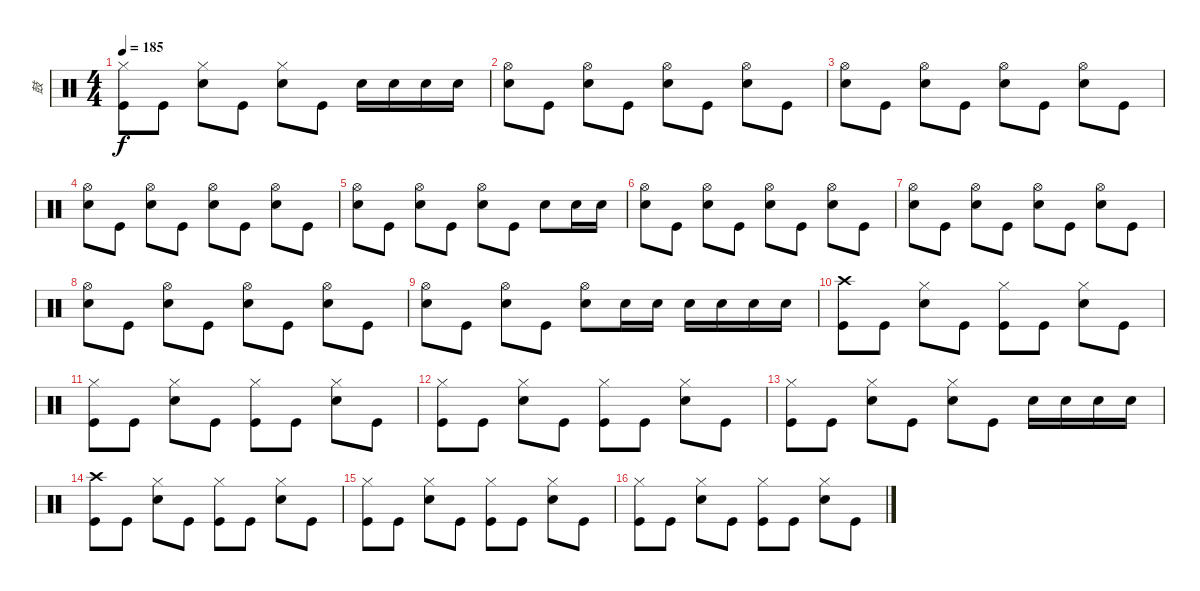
\track ("鼓" "鼓") {instrument percussion}
\staff {score}
\articulation defaults
\ts (4 4)
\tempo 185
\clef neutral
\ks c
("Hi-Hat (closed)" "Kick (hit)").8{dy f} "Kick (hit)".8 ("Hi-Hat (closed)" "Snare (hit) 2").8 "Kick (hit)".8 ("Hi-Hat (closed)" "Snare (hit) 2").8 "Kick (hit)".8 "Snare (hit) 2".16 "Snare (hit) 2".16 "Snare (hit) 2".16 "Snare (hit) 2".16 |
("Hi-Hat (open)" "Snare (hit) 2").8 "Kick (hit)".8 ("Hi-Hat (open)" "Snare (hit) 2").8 "Kick (hit)".8 ("Hi-Hat (open)" "Snare (hit) 2").8 "Kick (hit)".8 ("Hi-Hat (open)" "Snare (hit) 2").8 "Kick (hit)".8 |
("Hi-Hat (open)" "Snare (hit) 2").8 "Kick (hit)".8 ("Hi-Hat (open)" "Snare (hit) 2").8 "Kick (hit)".8 ("Hi-Hat (open)" "Snare (hit) 2").8 "Kick (hit)".8 ("Hi-Hat (open)" "Snare (hit) 2").8 "Kick (hit)".8 |
("Hi-Hat (open)" "Snare (hit) 2").8 "Kick (hit)".8 ("Hi-Hat (open)" "Snare (hit) 2").8 "Kick (hit)".8 ("Hi-Hat (open)" "Snare (hit) 2").8 "Kick (hit)".8 ("Hi-Hat (open)" "Snare (hit) 2").8 "Kick (hit)".8 |
("Hi-Hat (open)" "Snare (hit) 2").8 "Kick (hit)".8 ("Hi-Hat (open)" "Snare (hit) 2").8 "Kick (hit)".8 ("Hi-Hat (open)" "Snare (hit) 2").8 "Kick (hit)".8 "Snare (hit) 2".8 "Snare (hit) 2".16 "Snare (hit) 2".16 |
("Hi-Hat (open)" "Snare (hit) 2").8 "Kick (hit)".8 ("Hi-Hat (open)" "Snare (hit) 2").8 "Kick (hit)".8 ("Hi-Hat (open)" "Snare (hit) 2").8 "Kick (hit)".8 ("Hi-Hat (open)" "Snare (hit) 2").8 "Kick (hit)".8 |
("Hi-Hat (open)" "Snare (hit) 2").8 "Kick (hit)".8 ("Hi-Hat (open)" "Snare (hit) 2").8 "Kick (hit)".8 ("Hi-Hat (open)" "Snare (hit) 2").8 "Kick (hit)".8 ("Hi-Hat (open)" "Snare (hit) 2").8 "Kick (hit)".8 |
("Hi-Hat (open)" "Snare (hit) 2").8 "Kick (hit)".8 ("Hi-Hat (open)" "Snare (hit) 2").8 "Kick (hit)".8 ("Hi-Hat (open)" "Snare (hit) 2").8 "Kick (hit)".8 ("Hi-Hat (open)" "Snare (hit) 2").8 "Kick (hit)".8 |
("Hi-Hat (open)" "Snare (hit) 2").8 "Kick (hit)".8 ("Hi-Hat (open)" "Snare (hit) 2").8 "Kick (hit)".8 ("Hi-Hat (open)" "Snare (hit) 2").8 "Snare (hit) 2".16 "Snare (hit) 2".16 "Snare (hit) 2".16 "Snare (hit) 2".16 "Snare (hit) 2".16 "Snare (hit) 2".16 |
("Crash high (hit)" "Kick (hit)").8 "Kick (hit)".8 ("Hi-Hat (closed)" "Snare (hit) 2").8 "Kick (hit)".8 ("Hi-Hat (closed)" "Kick (hit)").8 "Kick (hit)".8 ("Hi-Hat (closed)" "Snare (hit) 2").8 "Kick (hit)".8 |
("Hi-Hat (closed)" "Kick (hit)").8 "Kick (hit)".8 ("Hi-Hat (closed)" "Snare (hit) 2").8 "Kick (hit)".8 ("Hi-Hat (closed)" "Kick (hit)").8 "Kick (hit)".8 ("Hi-Hat (closed)" "Snare (hit) 2").8 "Kick (hit)".8 |
("Hi-Hat (closed)" "Kick (hit)").8 "Kick (hit)".8 ("Hi-Hat (closed)" "Snare (hit) 2").8 "Kick (hit)".8 ("Hi-Hat (closed)" "Kick (hit)").8 "Kick (hit)".8 ("Hi-Hat (closed)" "Snare (hit) 2").8 "Kick (hit)".8 |
("Hi-Hat (closed)" "Kick (hit)").8 "Kick (hit)".8 ("Hi-Hat (closed)" "Snare (hit) 2").8 "Kick (hit)".8 ("Hi-Hat (closed)" "Snare (hit) 2").8 "Kick (hit)".8 "Snare (hit) 2".16 "Snare (hit) 2".16 "Snare (hit) 2".16 "Snare (hit) 2".16 |
("Crash high (hit)" "Kick (hit)").8 "Kick (hit)".8 ("Hi-Hat (closed)" "Snare (hit) 2").8 "Kick (hit)".8 ("Hi-Hat (closed)" "Kick (hit)").8 "Kick (hit)".8 ("Hi-Hat (closed)" "Snare (hit) 2").8 "Kick (hit)".8 |
("Hi-Hat (closed)" "Kick (hit)").8 "Kick (hit)".8 ("Hi-Hat (closed)" "Snare (hit) 2").8 "Kick (hit)".8 ("Hi-Hat (closed)" "Kick (hit)").8 "Kick (hit)".8 ("Hi-Hat (closed)" "Snare (hit) 2").8 "Kick (hit)".8 |
("Hi-Hat (closed)" "Kick (hit)").8 "Kick (hit)".8 ("Hi-Hat (closed)" "Snare (hit) 2").8 "Kick (hit)".8 ("Hi-Hat (closed)" "Kick (hit)").8 "Kick (hit)".8 ("Hi-Hat (closed)" "Snare (hit) 2").8 "Kick (hit)".8
